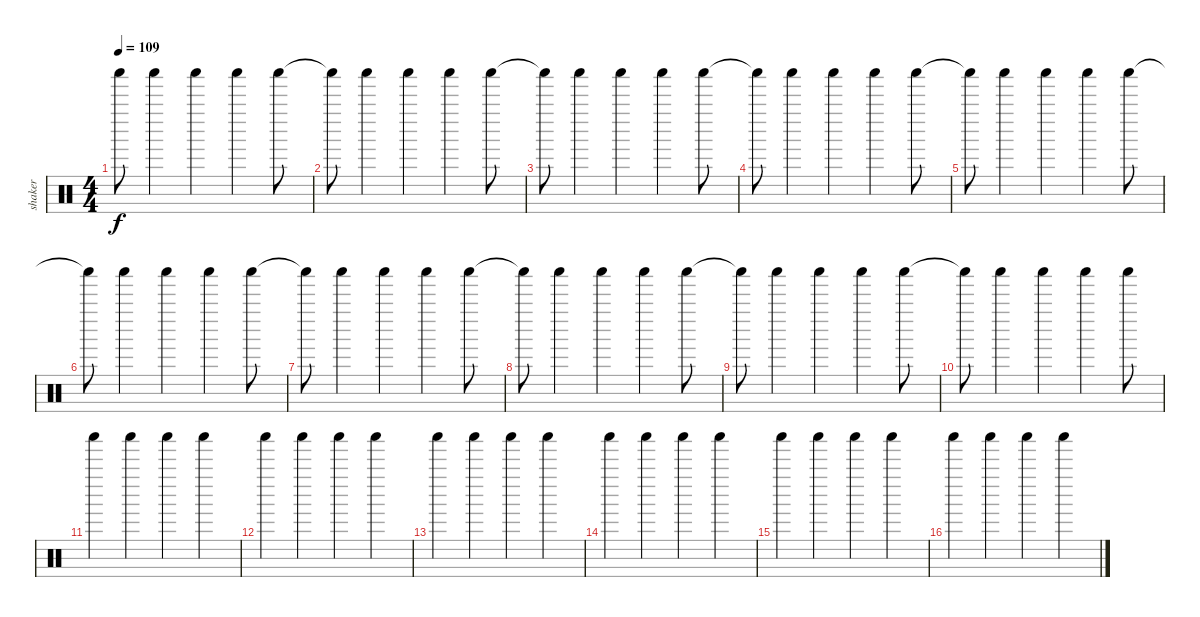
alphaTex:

\track ("shaker" "shaker") {instrument percussion}
\staff {score}
\articulation defaults
\ts (4 4)
\tempo 109
\clef neutral
\ks c "Shaker (hit)"{t}.8{dy f} "Shaker (hit)".4 "Shaker (hit)".4 "Shaker (hit)".4 "Shaker (hit)".8
|
"Shaker (hit)"{t}.8 "Shaker (hit)".4 "Shaker (hit)".4 "Shaker (hit)".4 "Shaker (hit)".8 |
"Shaker (hit)"{t}.8 "Shaker (hit)".4 "Shaker (hit)".4 "Shaker (hit)".4 "Shaker (hit)".8 |
"Shaker (hit)"{t}.8 "Shaker (hit)".4 "Shaker (hit)".4 "Shaker (hit)".4 "Shaker (hit)".8 |
"Shaker (hit)"{t}.8 "Shaker (hit)".4 "Shaker (hit)".4 "Shaker (hit)".4 "Shaker (hit)".8 |
"Shaker (hit)"{t}.8 "Shaker (hit)".4 "Shaker (hit)".4 "Shaker (hit)".4 "Shaker (hit)".8 |
"Shaker (hit)"{t}.8 "Shaker (hit)".4 "Shaker (hit)".4 "Shaker (hit)".4 "Shaker (hit)".8 |
"Shaker (hit)"{t}.8 "Shaker (hit)".4 "Shaker (hit)".4 "Shaker (hit)".4 "Shaker (hit)".8 |
"Shaker (hit)"{t}.8 "Shaker (hit)".4 "Shaker (hit)".4 "Shaker (hit)".4 "Shaker (hit)".8 |
"Shaker (hit)"{t}.8 "Shaker (hit)".4 "Shaker (hit)".4 "Shaker (hit)".4 "Shaker (hit)".8 |
"Shaker (hit)".4 "Shaker (hit)".4 "Shaker (hit)".4 "Shaker (hit)".4 |
"Shaker (hit)".4 "Shaker (hit)".4 "Shaker (hit)".4 "Shaker (hit)".4 |
"Shaker (hit)".4 "Shaker (hit)".4 "Shaker (hit)".4 "Shaker (hit)".4 |
"Shaker (hit)".4 "Shaker (hit)".4 "Shaker (hit)".4 "Shaker (hit)".4 |
"Shaker (hit)".4 "Shaker (hit)".4 "Shaker (hit)".4 "Shaker (hit)".4 |
"Shaker (hit)".4 "Shaker (hit)".4 "Shaker (hit)".4 "Shaker (hit)".4
